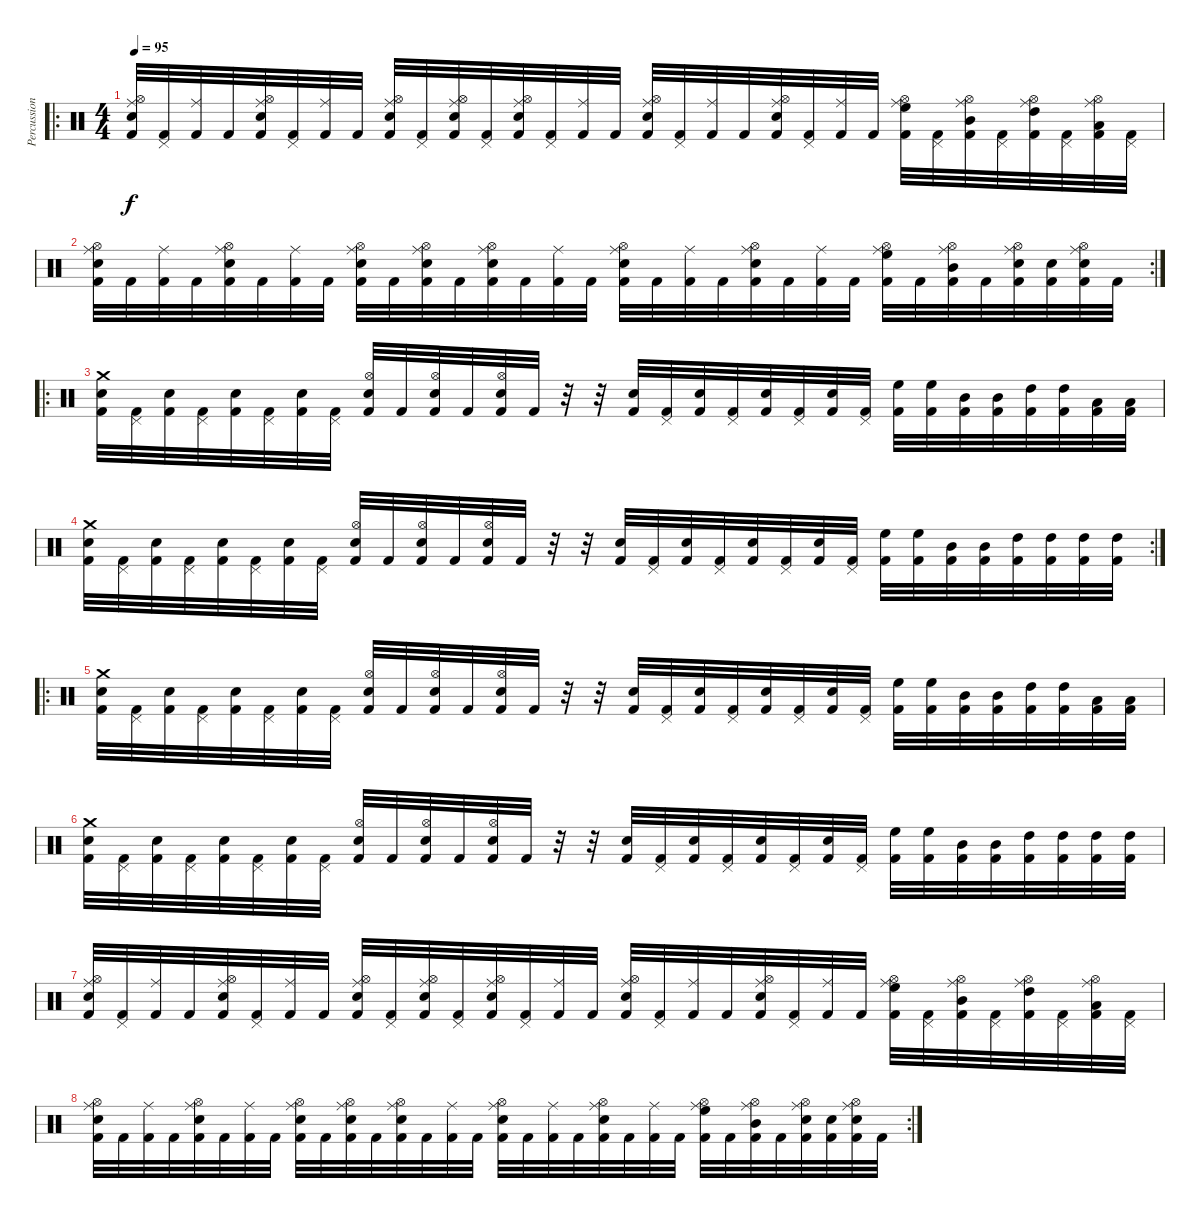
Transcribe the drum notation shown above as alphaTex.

\track ("Percussion" "Percussion") {instrument percussion}
\staff {score}
\articulation defaults
\ro
\ts (4 4)
\tempo 95
\clef neutral
\ks c
("Electric Snare (hit)" "Hi-Hat (open)" "Ride (middle)" "Kick (hit) 2").32{dy f} ("Pedal Hi-Hat (hit)" "Kick (hit) 2").32 ("Ride (middle)" "Kick (hit) 2").32 "Kick (hit) 2".32 ("Electric Snare (hit)" "Hi-Hat (open)" "Ride (middle)" "Kick (hit) 2").32 ("Pedal Hi-Hat (hit)" "Kick (hit) 2").32 ("Ride (middle)" "Kick (hit) 2").32 "Kick (hit) 2".32 ("Electric Snare (hit)" "Hi-Hat (open)" "Ride (middle)" "Kick (hit) 2").32 ("Pedal Hi-Hat (hit)" "Kick (hit) 2").32 ("Electric Snare (hit)" "Hi-Hat (open)" "Ride (middle)" "Kick (hit) 2").32 ("Pedal Hi-Hat (hit)" "Kick (hit) 2").32 ("Electric Snare (hit)" "Hi-Hat (open)" "Ride (middle)" "Kick (hit) 2").32 ("Pedal Hi-Hat (hit)" "Kick (hit) 2").32 ("Ride (middle)" "Kick (hit) 2").32 "Kick (hit) 2".32 ("Electric Snare (hit)" "Hi-Hat (open)" "Ride (middle)" "Kick (hit) 2").32 ("Pedal Hi-Hat (hit)" "Kick (hit) 2").32 ("Ride (middle)" "Kick (hit) 2").32 "Kick (hit) 2".32 ("Electric Snare (hit)" "Hi-Hat (open)" "Ride (middle)" "Kick (hit) 2").32 ("Pedal Hi-Hat (hit)" "Kick (hit) 2").32 ("Ride (middle)" "Kick (hit) 2").32 "Kick (hit) 2".32 ("High Floor Tom (hit)" "Hi-Hat (open)" "Ride (middle)" "Kick (hit) 2").32 ("Pedal Hi-Hat (hit)" "Kick (hit) 2").32 ("Mid Tom (hit)" "Hi-Hat (open)" "Ride (middle)" "Kick (hit) 2").32 ("Pedal Hi-Hat (hit)" "Kick (hit) 2").32 ("High Tom (hit)" "Hi-Hat (open)" "Ride (middle)" "Kick (hit) 2").32 ("Pedal Hi-Hat (hit)" "Kick (hit) 2").32 ("Low Tom (hit)" "Hi-Hat (open)" "Ride (middle)" "Kick (hit) 2").32 ("Pedal Hi-Hat (hit)" "Kick (hit) 2").32 |
\rc 2
("Electric Snare (hit)" "Hi-Hat (open)" "Ride (middle)" "Kick (hit) 2").32 "Kick (hit) 2".32 ("Ride (middle)" "Kick (hit) 2").32 "Kick (hit) 2".32 ("Electric Snare (hit)" "Hi-Hat (open)" "Ride (middle)" "Kick (hit) 2").32 "Kick (hit) 2".32 ("Ride (middle)" "Kick (hit) 2").32 "Kick (hit) 2".32 ("Electric Snare (hit)" "Hi-Hat (open)" "Ride (middle)" "Kick (hit) 2").32 "Kick (hit) 2".32 ("Electric Snare (hit)" "Hi-Hat (open)" "Ride (middle)" "Kick (hit) 2").32 "Kick (hit) 2".32 ("Electric Snare (hit)" "Hi-Hat (open)" "Ride (middle)" "Kick (hit) 2").32 "Kick (hit) 2".32 ("Ride (middle)" "Kick (hit) 2").32 "Kick (hit) 2".32 ("Electric Snare (hit)" "Hi-Hat (open)" "Ride (middle)" "Kick (hit) 2").32 "Kick (hit) 2".32 ("Ride (middle)" "Kick (hit) 2").32 "Kick (hit) 2".32 ("Electric Snare (hit)" "Hi-Hat (open)" "Ride (middle)" "Kick (hit) 2").32 "Kick (hit) 2".32 ("Ride (middle)" "Kick (hit) 2").32 "Kick (hit) 2".32 ("High Floor Tom (hit)" "Hi-Hat (open)" "Ride (middle)" "Kick (hit) 2").32 "Kick (hit) 2".32 ("Mid Tom (hit)" "Hi-Hat (open)" "Ride (middle)" "Kick (hit) 2").32 "Kick (hit) 2".32 ("Snare (hit) 2" "Hi-Hat (open)" "Ride (middle)" "Kick (hit) 2").32 ("Snare (hit) 2" "Kick (hit) 2").32 ("Snare (hit) 2" "Hi-Hat (open)" "Ride (middle)" "Kick (hit) 2").32 "Kick (hit) 2".32 |
\ro
("Crash medium (hit)" "Electric Snare (hit)" "Kick (hit) 2").32 ("Pedal Hi-Hat (hit)" "Kick (hit) 2").32 ("Electric Snare (hit)" "Kick (hit) 2").32 ("Pedal Hi-Hat (hit)" "Kick (hit) 2").32 ("Electric Snare (hit)" "Kick (hit) 2").32 ("Pedal Hi-Hat (hit)" "Kick (hit) 2").32 ("Electric Snare (hit)" "Kick (hit) 2").32 ("Pedal Hi-Hat (hit)" "Kick (hit) 2").32 ("Electric Snare (hit)" "Hi-Hat (open)" "Kick (hit) 2").32 "Kick (hit) 2".32 ("Electric Snare (hit)" "Hi-Hat (open)" "Kick (hit) 2").32 "Kick (hit) 2".32 ("Electric Snare (hit)" "Hi-Hat (open)" "Kick (hit) 2").32 "Kick (hit) 2".32 r.32 r.32 ("Electric Snare (hit)" "Kick (hit) 2").32 ("Pedal Hi-Hat (hit)" "Kick (hit) 2").32 ("Electric Snare (hit)" "Kick (hit) 2").32 ("Pedal Hi-Hat (hit)" "Kick (hit) 2").32 ("Electric Snare (hit)" "Kick (hit) 2").32 ("Pedal Hi-Hat (hit)" "Kick (hit) 2").32 ("Electric Snare (hit)" "Kick (hit) 2").32 ("Pedal Hi-Hat (hit)" "Kick (hit) 2").32 ("High Floor Tom (hit)" "Kick (hit) 2").32 ("High Floor Tom (hit)" "Kick (hit) 2").32 ("Mid Tom (hit)" "Kick (hit) 2").32 ("Mid Tom (hit)" "Kick (hit) 2").32 ("High Tom (hit)" "Kick (hit) 2").32 ("High Tom (hit)" "Kick (hit) 2").32 ("Low Tom (hit)" "Kick (hit) 2").32 ("Low Tom (hit)" "Kick (hit) 2").32 |
\rc 2
("Crash medium (hit)" "Electric Snare (hit)" "Kick (hit) 2").32 ("Pedal Hi-Hat (hit)" "Kick (hit) 2").32 ("Electric Snare (hit)" "Kick (hit) 2").32 ("Pedal Hi-Hat (hit)" "Kick (hit) 2").32 ("Electric Snare (hit)" "Kick (hit) 2").32 ("Pedal Hi-Hat (hit)" "Kick (hit) 2").32 ("Electric Snare (hit)" "Kick (hit) 2").32 ("Pedal Hi-Hat (hit)" "Kick (hit) 2").32 ("Electric Snare (hit)" "Hi-Hat (open)" "Kick (hit) 2").32 "Kick (hit) 2".32 ("Electric Snare (hit)" "Hi-Hat (open)" "Kick (hit) 2").32 "Kick (hit) 2".32 ("Electric Snare (hit)" "Hi-Hat (open)" "Kick (hit) 2").32 "Kick (hit) 2".32 r.32 r.32 ("Electric Snare (hit)" "Kick (hit) 2").32 ("Pedal Hi-Hat (hit)" "Kick (hit) 2").32 ("Electric Snare (hit)" "Kick (hit) 2").32 ("Pedal Hi-Hat (hit)" "Kick (hit) 2").32 ("Electric Snare (hit)" "Kick (hit) 2").32 ("Pedal Hi-Hat (hit)" "Kick (hit) 2").32 ("Electric Snare (hit)" "Kick (hit) 2").32 ("Pedal Hi-Hat (hit)" "Kick (hit) 2").32 ("High Floor Tom (hit)" "Kick (hit) 2").32 ("High Floor Tom (hit)" "Kick (hit) 2").32 ("Mid Tom (hit)" "Kick (hit) 2").32 ("Mid Tom (hit)" "Kick (hit) 2").32 ("High Tom (hit)" "Kick (hit) 2").32 ("High Tom (hit)" "Kick (hit) 2").32 ("High Tom (hit)" "Kick (hit) 2").32 ("High Tom (hit)" "Kick (hit) 2").32 |
\ro
("Crash medium (hit)" "Electric Snare (hit)" "Kick (hit) 2").32 ("Pedal Hi-Hat (hit)" "Kick (hit) 2").32 ("Electric Snare (hit)" "Kick (hit) 2").32 ("Pedal Hi-Hat (hit)" "Kick (hit) 2").32 ("Electric Snare (hit)" "Kick (hit) 2").32 ("Pedal Hi-Hat (hit)" "Kick (hit) 2").32 ("Electric Snare (hit)" "Kick (hit) 2").32 ("Pedal Hi-Hat (hit)" "Kick (hit) 2").32 ("Electric Snare (hit)" "Hi-Hat (open)" "Kick (hit) 2").32 "Kick (hit) 2".32 ("Electric Snare (hit)" "Hi-Hat (open)" "Kick (hit) 2").32 "Kick (hit) 2".32 ("Electric Snare (hit)" "Hi-Hat (open)" "Kick (hit) 2").32 "Kick (hit) 2".32 r.32 r.32 ("Electric Snare (hit)" "Kick (hit) 2").32 ("Pedal Hi-Hat (hit)" "Kick (hit) 2").32 ("Electric Snare (hit)" "Kick (hit) 2").32 ("Pedal Hi-Hat (hit)" "Kick (hit) 2").32 ("Electric Snare (hit)" "Kick (hit) 2").32 ("Pedal Hi-Hat (hit)" "Kick (hit) 2").32 ("Electric Snare (hit)" "Kick (hit) 2").32 ("Pedal Hi-Hat (hit)" "Kick (hit) 2").32 ("High Floor Tom (hit)" "Kick (hit) 2").32 ("High Floor Tom (hit)" "Kick (hit) 2").32 ("Mid Tom (hit)" "Kick (hit) 2").32 ("Mid Tom (hit)" "Kick (hit) 2").32 ("High Tom (hit)" "Kick (hit) 2").32 ("High Tom (hit)" "Kick (hit) 2").32 ("Low Tom (hit)" "Kick (hit) 2").32 ("Low Tom (hit)" "Kick (hit) 2").32 |
("Crash medium (hit)" "Electric Snare (hit)" "Kick (hit) 2").32 ("Pedal Hi-Hat (hit)" "Kick (hit) 2").32 ("Electric Snare (hit)" "Kick (hit) 2").32 ("Pedal Hi-Hat (hit)" "Kick (hit) 2").32 ("Electric Snare (hit)" "Kick (hit) 2").32 ("Pedal Hi-Hat (hit)" "Kick (hit) 2").32 ("Electric Snare (hit)" "Kick (hit) 2").32 ("Pedal Hi-Hat (hit)" "Kick (hit) 2").32 ("Electric Snare (hit)" "Hi-Hat (open)" "Kick (hit) 2").32 "Kick (hit) 2".32 ("Electric Snare (hit)" "Hi-Hat (open)" "Kick (hit) 2").32 "Kick (hit) 2".32 ("Electric Snare (hit)" "Hi-Hat (open)" "Kick (hit) 2").32 "Kick (hit) 2".32 r.32 r.32 ("Electric Snare (hit)" "Kick (hit) 2").32 ("Pedal Hi-Hat (hit)" "Kick (hit) 2").32 ("Electric Snare (hit)" "Kick (hit) 2").32 ("Pedal Hi-Hat (hit)" "Kick (hit) 2").32 ("Electric Snare (hit)" "Kick (hit) 2").32 ("Pedal Hi-Hat (hit)" "Kick (hit) 2").32 ("Electric Snare (hit)" "Kick (hit) 2").32 ("Pedal Hi-Hat (hit)" "Kick (hit) 2").32 ("High Floor Tom (hit)" "Kick (hit) 2").32 ("High Floor Tom (hit)" "Kick (hit) 2").32 ("Mid Tom (hit)" "Kick (hit) 2").32 ("Mid Tom (hit)" "Kick (hit) 2").32 ("High Tom (hit)" "Kick (hit) 2").32 ("High Tom (hit)" "Kick (hit) 2").32 ("High Tom (hit)" "Kick (hit) 2").32 ("High Tom (hit)" "Kick (hit) 2").32 |
("Electric Snare (hit)" "Hi-Hat (open)" "Ride (middle)" "Kick (hit) 2").32 ("Pedal Hi-Hat (hit)" "Kick (hit) 2").32 ("Ride (middle)" "Kick (hit) 2").32 "Kick (hit) 2".32 ("Electric Snare (hit)" "Hi-Hat (open)" "Ride (middle)" "Kick (hit) 2").32 ("Pedal Hi-Hat (hit)" "Kick (hit) 2").32 ("Ride (middle)" "Kick (hit) 2").32 "Kick (hit) 2".32 ("Electric Snare (hit)" "Hi-Hat (open)" "Ride (middle)" "Kick (hit) 2").32 ("Pedal Hi-Hat (hit)" "Kick (hit) 2").32 ("Electric Snare (hit)" "Hi-Hat (open)" "Ride (middle)" "Kick (hit) 2").32 ("Pedal Hi-Hat (hit)" "Kick (hit) 2").32 ("Electric Snare (hit)" "Hi-Hat (open)" "Ride (middle)" "Kick (hit) 2").32 ("Pedal Hi-Hat (hit)" "Kick (hit) 2").32 ("Ride (middle)" "Kick (hit) 2").32 "Kick (hit) 2".32 ("Electric Snare (hit)" "Hi-Hat (open)" "Ride (middle)" "Kick (hit) 2").32 ("Pedal Hi-Hat (hit)" "Kick (hit) 2").32 ("Ride (middle)" "Kick (hit) 2").32 "Kick (hit) 2".32 ("Electric Snare (hit)" "Hi-Hat (open)" "Ride (middle)" "Kick (hit) 2").32 ("Pedal Hi-Hat (hit)" "Kick (hit) 2").32 ("Ride (middle)" "Kick (hit) 2").32 "Kick (hit) 2".32 ("High Floor Tom (hit)" "Hi-Hat (open)" "Ride (middle)" "Kick (hit) 2").32 ("Pedal Hi-Hat (hit)" "Kick (hit) 2").32 ("Mid Tom (hit)" "Hi-Hat (open)" "Ride (middle)" "Kick (hit) 2").32 ("Pedal Hi-Hat (hit)" "Kick (hit) 2").32 ("High Tom (hit)" "Hi-Hat (open)" "Ride (middle)" "Kick (hit) 2").32 ("Pedal Hi-Hat (hit)" "Kick (hit) 2").32 ("Low Tom (hit)" "Hi-Hat (open)" "Ride (middle)" "Kick (hit) 2").32 ("Pedal Hi-Hat (hit)" "Kick (hit) 2").32 |
\rc 2
("Electric Snare (hit)" "Hi-Hat (open)" "Ride (middle)" "Kick (hit) 2").32 "Kick (hit) 2".32 ("Ride (middle)" "Kick (hit) 2").32 "Kick (hit) 2".32 ("Electric Snare (hit)" "Hi-Hat (open)" "Ride (middle)" "Kick (hit) 2").32 "Kick (hit) 2".32 ("Ride (middle)" "Kick (hit) 2").32 "Kick (hit) 2".32 ("Electric Snare (hit)" "Hi-Hat (open)" "Ride (middle)" "Kick (hit) 2").32 "Kick (hit) 2".32 ("Electric Snare (hit)" "Hi-Hat (open)" "Ride (middle)" "Kick (hit) 2").32 "Kick (hit) 2".32 ("Electric Snare (hit)" "Hi-Hat (open)" "Ride (middle)" "Kick (hit) 2").32 "Kick (hit) 2".32 ("Ride (middle)" "Kick (hit) 2").32 "Kick (hit) 2".32 ("Electric Snare (hit)" "Hi-Hat (open)" "Ride (middle)" "Kick (hit) 2").32 "Kick (hit) 2".32 ("Ride (middle)" "Kick (hit) 2").32 "Kick (hit) 2".32 ("Electric Snare (hit)" "Hi-Hat (open)" "Ride (middle)" "Kick (hit) 2").32 "Kick (hit) 2".32 ("Ride (middle)" "Kick (hit) 2").32 "Kick (hit) 2".32 ("High Floor Tom (hit)" "Hi-Hat (open)" "Ride (middle)" "Kick (hit) 2").32 "Kick (hit) 2".32 ("Mid Tom (hit)" "Hi-Hat (open)" "Ride (middle)" "Kick (hit) 2").32 "Kick (hit) 2".32 ("Snare (hit) 2" "Hi-Hat (open)" "Ride (middle)" "Kick (hit) 2").32 ("Snare (hit) 2" "Kick (hit) 2").32 ("Snare (hit) 2" "Hi-Hat (open)" "Ride (middle)" "Kick (hit) 2").32 "Kick (hit) 2".32
